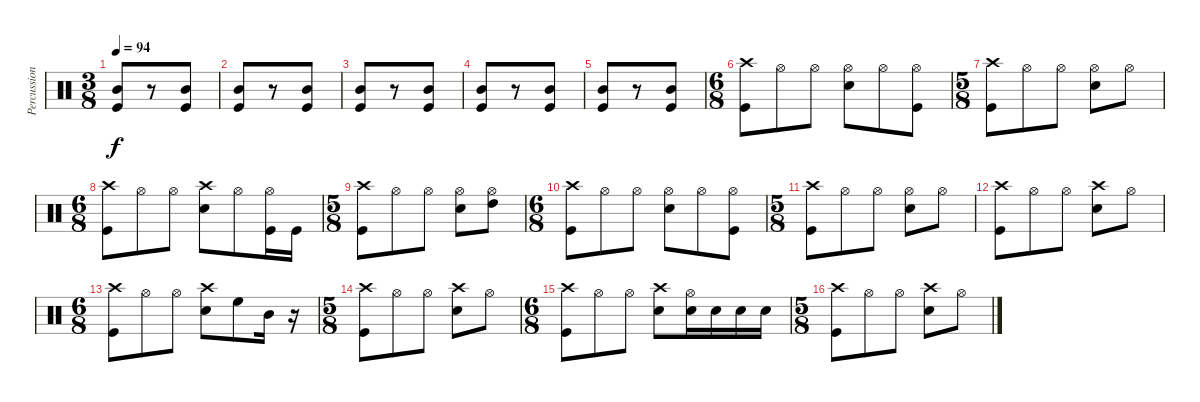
\track ("Percussioni" "Percussion") {instrument percussion}
\staff {score}
\articulation defaults
\ts (3 8)
\tempo 94
\clef neutral
\ks c
("Kick (hit)" "Mid Tom (hit)").8{dy f} r.8 ("Kick (hit)" "Mid Tom (hit)").8 |
("Kick (hit)" "Mid Tom (hit)").8 r.8 ("Kick (hit)" "Mid Tom (hit)").8 |
("Kick (hit)" "Mid Tom (hit)").8 r.8 ("Kick (hit)" "Mid Tom (hit)").8 |
("Kick (hit)" "Mid Tom (hit)").8 r.8 ("Kick (hit)" "Mid Tom (hit)").8 |
("Kick (hit)" "Mid Tom (hit)").8 r.8 ("Kick (hit)" "Mid Tom (hit)").8 |
\ts (6 8)
("Crash high (hit)" "Kick (hit)").8 "Hi-Hat (open)".8 "Hi-Hat (open)".8 ("Hi-Hat (open)" "Snare (hit) 2").8 "Hi-Hat (open)".8 ("Hi-Hat (open)" "Kick (hit)").8 |
\ts (5 8)
("Crash high (hit)" "Kick (hit)").8 "Hi-Hat (open)".8 "Hi-Hat (open)".8 ("Hi-Hat (open)" "Snare (hit) 2").8 "Hi-Hat (open)".8 |
\ts (6 8)
("Crash high (hit)" "Kick (hit)").8 "Hi-Hat (open)".8 "Hi-Hat (open)".8 ("Crash high (hit)" "Snare (hit) 2").8 "Hi-Hat (open)".8 ("Kick (hit)" "Hi-Hat (open)").16 "Kick (hit)".16 |
\ts (5 8)
("Crash high (hit)" "Kick (hit)").8 "Hi-Hat (open)".8 "Hi-Hat (open)".8 ("Snare (hit) 2" "Hi-Hat (open)").8 ("High Tom (hit)" "Hi-Hat (open)").8 |
\ts (6 8)
("Crash high (hit)" "Kick (hit)").8 "Hi-Hat (open)".8 "Hi-Hat (open)".8 ("Hi-Hat (open)" "Snare (hit) 2").8 "Hi-Hat (open)".8 ("Hi-Hat (open)" "Kick (hit)").8 |
\ts (5 8)
("Crash high (hit)" "Kick (hit)").8 "Hi-Hat (open)".8 "Hi-Hat (open)".8 ("Hi-Hat (open)" "Snare (hit) 2").8 "Hi-Hat (open)".8 |
("Crash high (hit)" "Kick (hit)").8 "Hi-Hat (open)".8 "Hi-Hat (open)".8 ("Crash high (hit)" "Snare (hit) 2").8 "Hi-Hat (open)".8 |
\ts (6 8)
("Crash high (hit)" "Kick (hit)").8 "Hi-Hat (open)".8 "Hi-Hat (open)".8 ("Crash high (hit)" "Snare (hit) 2").8 "High Floor Tom (hit)".8 "Mid Tom (hit)".16 r.16 |
\ts (5 8)
("Crash high (hit)" "Kick (hit)").8 "Hi-Hat (open)".8 "Hi-Hat (open)".8 ("Crash high (hit)" "Snare (hit) 2").8 "Hi-Hat (open)".8 |
\ts (6 8)
("Crash high (hit)" "Kick (hit)").8 "Hi-Hat (open)".8 "Hi-Hat (open)".8 ("Crash high (hit)" "Snare (hit) 2").8 ("Snare (hit) 2" "Hi-Hat (open)").16 "Snare (hit) 2".16 "Snare (hit) 2".16 "Snare (hit) 2".16 |
\ts (5 8)
("Crash high (hit)" "Kick (hit)").8 "Hi-Hat (open)".8 "Hi-Hat (open)".8 ("Crash high (hit)" "Snare (hit) 2").8 "Hi-Hat (open)".8
